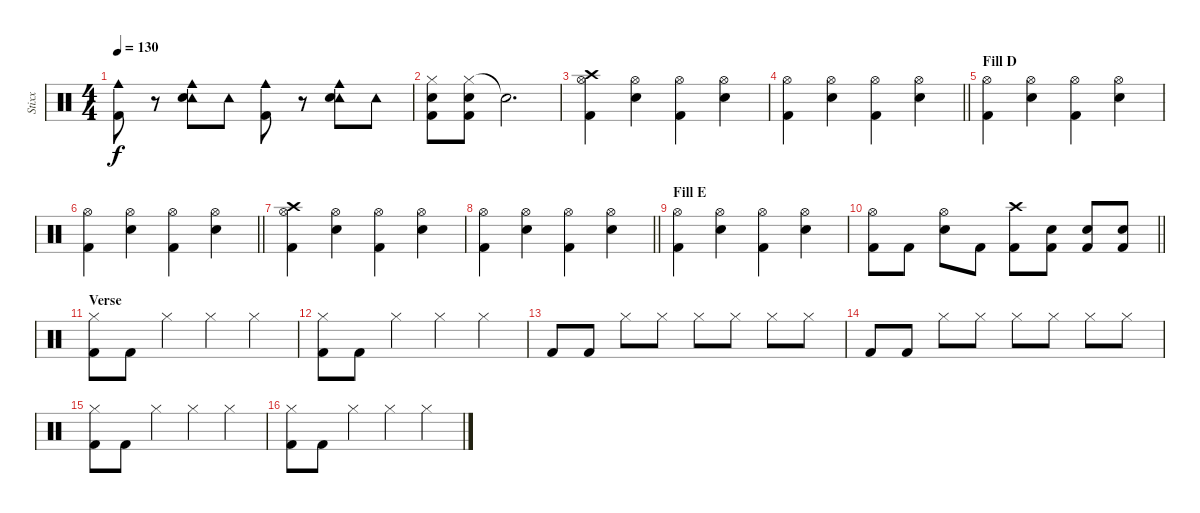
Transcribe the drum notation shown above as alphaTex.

\track ("Stixx" "Stixx") {instrument percussion}
\staff {score}
\articulation defaults
\ts (4 4)
\tempo 130
\clef neutral
\ks c
("Cowbell medium (hit)" "Kick (hit) 2").8{dy f} r.8 ("Tambourine (hit)" "Cowbell medium (hit)" "Snare (hit) 2").8 "Tambourine (hit)".8 ("Cowbell medium (hit)" "Kick (hit) 2").8 r.8 ("Tambourine (hit)" "Cowbell medium (hit)" "Snare (hit) 2").8 "Tambourine (hit)".8 |
("Hi-Hat (closed)" "Snare (hit) 2" "Kick (hit) 2").8 ("Hi-Hat (closed)" "Snare (hit) 2" "Kick (hit) 2").8 "Snare (hit)"{t}.2{d} |
("Crash high (hit)" "Hi-Hat (open)" "Kick (hit) 2").4 ("Hi-Hat (open)" "Snare (hit) 2").4 ("Hi-Hat (open)" "Kick (hit) 2").4 ("Hi-Hat (open)" "Snare (hit) 2").4 |
\barLineRight lightlight
("Hi-Hat (open)" "Kick (hit) 2").4 ("Hi-Hat (open)" "Snare (hit) 2").4 ("Hi-Hat (open)" "Kick (hit) 2").4 ("Hi-Hat (open)" "Snare (hit) 2").4 |
\section ("" "Fill D")
("Hi-Hat (open)" "Kick (hit) 2").4 ("Hi-Hat (open)" "Snare (hit) 2").4 ("Hi-Hat (open)" "Kick (hit) 2").4 ("Hi-Hat (open)" "Snare (hit) 2").4 |
\barLineRight lightlight
("Hi-Hat (open)" "Kick (hit) 2").4 ("Hi-Hat (open)" "Snare (hit) 2").4 ("Hi-Hat (open)" "Kick (hit) 2").4 ("Hi-Hat (open)" "Snare (hit) 2").4 |
("Crash high (hit)" "Hi-Hat (open)" "Kick (hit) 2").4 ("Hi-Hat (open)" "Snare (hit) 2").4 ("Hi-Hat (open)" "Kick (hit) 2").4 ("Hi-Hat (open)" "Snare (hit) 2").4 |
\barLineRight lightlight
("Hi-Hat (open)" "Kick (hit) 2").4 ("Hi-Hat (open)" "Snare (hit) 2").4 ("Hi-Hat (open)" "Kick (hit) 2").4 ("Hi-Hat (open)" "Snare (hit) 2").4 |
\section ("" "Fill E")
("Hi-Hat (open)" "Kick (hit) 2").4 ("Hi-Hat (open)" "Snare (hit) 2").4 ("Hi-Hat (open)" "Kick (hit) 2").4 ("Hi-Hat (open)" "Snare (hit) 2").4 |
\barLineRight lightlight
("Hi-Hat (open)" "Kick (hit) 2").8 "Kick (hit) 2".8 ("Hi-Hat (open)" "Snare (hit) 2").8 "Kick (hit) 2".8 ("Crash high (hit)" "Kick (hit) 2").8 ("Snare (hit) 2" "Kick (hit) 2").8 ("Snare (hit) 2" "Kick (hit) 2").8 ("Snare (hit) 2" "Kick (hit) 2").8 |
\section ("" "Verse")
("Hi-Hat (closed)" "Kick (hit) 2").8 "Kick (hit) 2".8 "Hi-Hat (closed)".4 "Hi-Hat (closed)".4 "Hi-Hat (closed)".4 |
("Hi-Hat (closed)" "Kick (hit) 2").8 "Kick (hit) 2".8 "Hi-Hat (closed)".4 "Hi-Hat (closed)".4 "Hi-Hat (closed)".4 |
"Kick (hit) 2".8 "Kick (hit) 2".8 "Hi-Hat (closed)".8 "Hi-Hat (closed)".8 "Hi-Hat (closed)".8 "Hi-Hat (closed)".8 "Hi-Hat (closed)".8 "Hi-Hat (closed)".8 |
"Kick (hit) 2".8 "Kick (hit) 2".8 "Hi-Hat (closed)".8 "Hi-Hat (closed)".8 "Hi-Hat (closed)".8 "Hi-Hat (closed)".8 "Hi-Hat (closed)".8 "Hi-Hat (closed)".8 |
("Hi-Hat (closed)" "Kick (hit) 2").8 "Kick (hit) 2".8 "Hi-Hat (closed)".4 "Hi-Hat (closed)".4 "Hi-Hat (closed)".4 |
("Hi-Hat (closed)" "Kick (hit) 2").8 "Kick (hit) 2".8 "Hi-Hat (closed)".4 "Hi-Hat (closed)".4 "Hi-Hat (closed)".4
